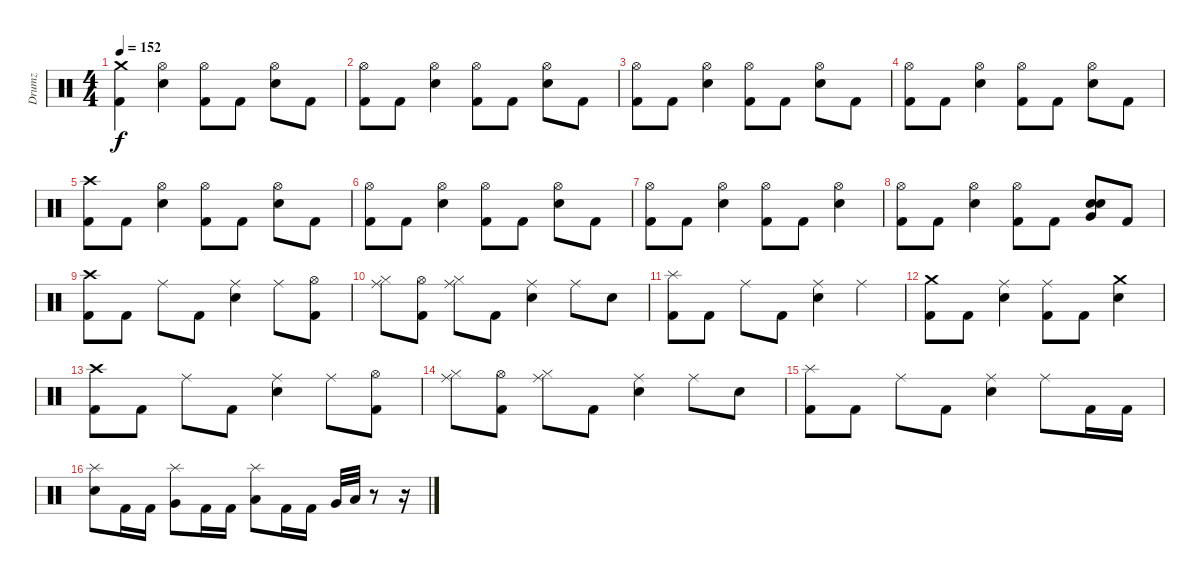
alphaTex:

\track ("Drumz" "Drumz") {instrument percussion}
\staff {score}
\articulation defaults
\ts (4 4)
\tempo 152
\clef neutral
\ks c
("Kick (hit) 2" "Crash medium (hit)").4{dy f} ("Snare (hit) 2" "Hi-Hat (open)").4 ("Kick (hit) 2" "Hi-Hat (open)").8 "Kick (hit) 2".8 ("Snare (hit) 2" "Hi-Hat (open)").8 "Kick (hit) 2".8 |
("Kick (hit) 2" "Hi-Hat (open)").8 "Kick (hit) 2".8 ("Snare (hit) 2" "Hi-Hat (open)").4 ("Kick (hit) 2" "Hi-Hat (open)").8 "Kick (hit) 2".8 ("Snare (hit) 2" "Hi-Hat (open)").8 "Kick (hit) 2".8 |
("Kick (hit) 2" "Hi-Hat (open)").8 "Kick (hit) 2".8 ("Snare (hit) 2" "Hi-Hat (open)").4 ("Kick (hit) 2" "Hi-Hat (open)").8 "Kick (hit) 2".8 ("Snare (hit) 2" "Hi-Hat (open)").8 "Kick (hit) 2".8 |
("Kick (hit) 2" "Hi-Hat (open)").8 "Kick (hit) 2".8 ("Snare (hit) 2" "Hi-Hat (open)").4 ("Kick (hit) 2" "Hi-Hat (open)").8 "Kick (hit) 2".8 ("Snare (hit) 2" "Hi-Hat (open)").8 "Kick (hit) 2".8 |
("Kick (hit) 2" "Crash high (hit)").8 "Kick (hit) 2".8 ("Snare (hit) 2" "Hi-Hat (open)").4 ("Kick (hit) 2" "Hi-Hat (open)").8 "Kick (hit) 2".8 ("Snare (hit) 2" "Hi-Hat (open)").8 "Kick (hit) 2".8 |
("Kick (hit) 2" "Hi-Hat (open)").8 "Kick (hit) 2".8 ("Snare (hit) 2" "Hi-Hat (open)").4 ("Kick (hit) 2" "Hi-Hat (open)").8 "Kick (hit) 2".8 ("Snare (hit) 2" "Hi-Hat (open)").8 "Kick (hit) 2".8 |
("Kick (hit) 2" "Hi-Hat (open)").8 "Kick (hit) 2".8 ("Snare (hit) 2" "Hi-Hat (open)").4 ("Kick (hit) 2" "Hi-Hat (open)").8 "Kick (hit) 2".8 ("Snare (hit) 2" "Hi-Hat (open)").4 |
("Kick (hit) 2" "Hi-Hat (open)").8 "Kick (hit) 2".8 ("Snare (hit) 2" "Hi-Hat (open)").4 ("Kick (hit) 2" "Hi-Hat (open)").8 "Kick (hit) 2".8 ("Snare (hit) 2" "Snare (hit) 2" "Very Low Tom (hit)").8 "Kick (hit) 2".8 |
("Kick (hit) 2" "Crash high (hit)").8 "Kick (hit) 2".8 "Ride (middle)".8 "Kick (hit) 2".8 ("Snare (hit) 2" "Ride (middle)").4 "Ride (middle)".8 ("Kick (hit) 2" "Hi-Hat (open)").8 |
("Hi-Hat (closed)" "Ride (middle)").8 ("Kick (hit) 2" "Hi-Hat (open)").8 ("Hi-Hat (closed)" "Ride (middle)").8 "Kick (hit) 2".8 ("Snare (hit) 2" "Ride (middle)").4 "Ride (middle)".8 "Snare (hit) 2".8 |
("Kick (hit) 2" "Splash (hit)").8 "Kick (hit) 2".8 "Ride (middle)".8 "Kick (hit) 2".8 ("Snare (hit) 2" "Ride (middle)").4 "Ride (middle)".4 |
("Kick (hit) 2" "Crash medium (hit)").8 "Kick (hit) 2".8 ("Snare (hit) 2" "Ride (middle)").4 ("Kick (hit) 2" "Ride (middle)").8 "Kick (hit) 2".8 ("Snare (hit) 2" "Crash medium (hit)").4 |
("Kick (hit) 2" "Crash high (hit)").8 "Kick (hit) 2".8 "Ride (middle)".8 "Kick (hit) 2".8 ("Snare (hit) 2" "Ride (middle)").4 "Ride (middle)".8 ("Kick (hit) 2" "Hi-Hat (open)").8 |
("Hi-Hat (closed)" "Ride (middle)").8 ("Kick (hit) 2" "Hi-Hat (open)").8 ("Hi-Hat (closed)" "Ride (middle)").8 "Kick (hit) 2".8 ("Snare (hit) 2" "Ride (middle)").4 "Ride (middle)".8 "Snare (hit) 2".8 |
("Kick (hit) 2" "Splash (hit)").8 "Kick (hit) 2".8 "Ride (middle)".8 "Kick (hit) 2".8 ("Snare (hit) 2" "Ride (middle)").4 "Ride (middle)".8 "Kick (hit) 2".16 "Kick (hit) 2".16 |
("Snare (hit) 2" "Splash (hit)").8 "Kick (hit) 2".16 "Kick (hit) 2".16 ("Very Low Tom (hit)" "Splash (hit)").8 "Kick (hit) 2".16 "Kick (hit) 2".16 ("Low Floor Tom (hit)" "Splash (hit)").8 "Kick (hit) 2".16 "Kick (hit) 2".16 "Very Low Tom (hit)".32 "Low Floor Tom (hit)".32 r.8 r.16
